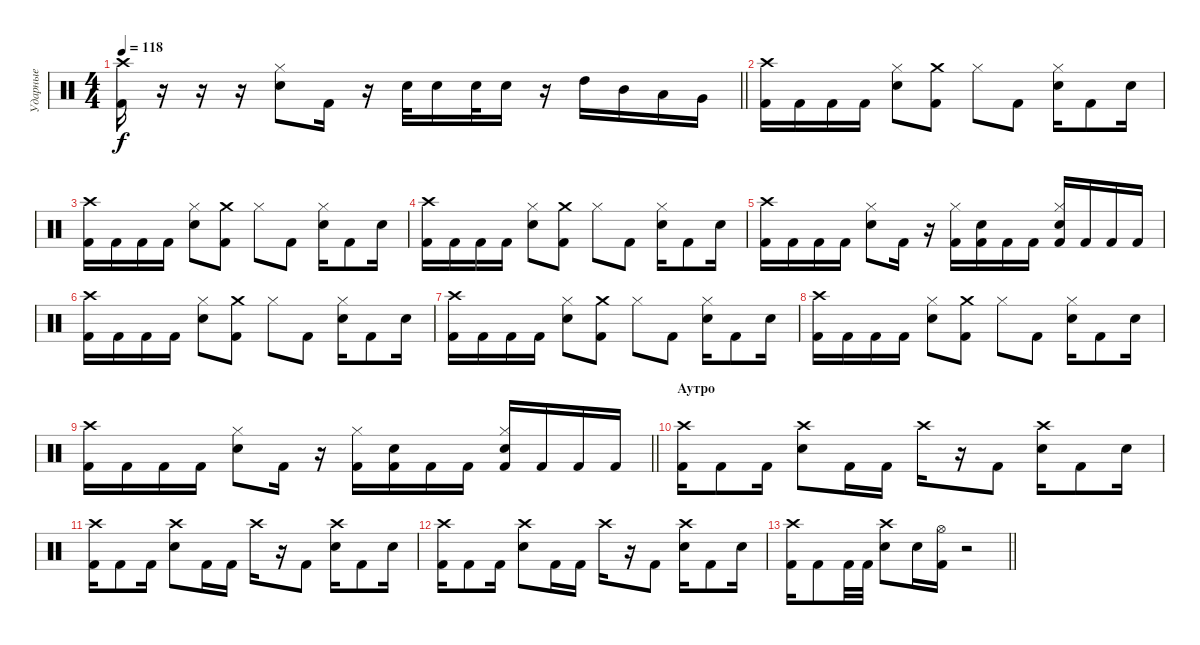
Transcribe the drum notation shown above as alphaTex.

\track ("Ударные" "Ударные") {instrument percussion}
\staff {score}
\articulation defaults
\ts (4 4)
\tempo 118
\clef neutral
\barLineRight lightlight
\ks c
("Crash high (hit)" "Kick (hit) 2").16{dy f} r.16 r.16 r.16 ("Hi-Hat (closed)" "Snare (hit) 2").8 "Kick (hit) 2".16 r.16 "Snare (hit) 2".32 "Snare (hit) 2".16 "Snare (hit) 2".32 "Snare (hit) 2".16 r.16 "High Tom (hit)".16 "Mid Tom (hit)".16 "Low Tom (hit)".16 "Very Low Tom (hit)".16 |
("Crash high (hit)" "Kick (hit) 2").16 "Kick (hit) 2".16 "Kick (hit) 2".16 "Kick (hit) 2".16 ("Hi-Hat (closed)" "Snare (hit) 2").8 ("Crash medium (hit)" "Kick (hit) 2").8 "Hi-Hat (closed)".8 "Kick (hit) 2".8 ("Hi-Hat (closed)" "Snare (hit) 2").16 "Kick (hit) 2".8 "Snare (hit) 2".16 |
("Crash high (hit)" "Kick (hit) 2").16 "Kick (hit) 2".16 "Kick (hit) 2".16 "Kick (hit) 2".16 ("Hi-Hat (closed)" "Snare (hit) 2").8 ("Crash medium (hit)" "Kick (hit) 2").8 "Hi-Hat (closed)".8 "Kick (hit) 2".8 ("Hi-Hat (closed)" "Snare (hit) 2").16 "Kick (hit) 2".8 "Snare (hit) 2".16 |
("Crash high (hit)" "Kick (hit) 2").16 "Kick (hit) 2".16 "Kick (hit) 2".16 "Kick (hit) 2".16 ("Hi-Hat (closed)" "Snare (hit) 2").8 ("Crash medium (hit)" "Kick (hit) 2").8 "Hi-Hat (closed)".8 "Kick (hit) 2".8 ("Hi-Hat (closed)" "Snare (hit) 2").16 "Kick (hit) 2".8 "Snare (hit) 2".16 |
("Crash high (hit)" "Kick (hit) 2").16 "Kick (hit) 2".16 "Kick (hit) 2".16 "Kick (hit) 2".16 ("Hi-Hat (closed)" "Snare (hit) 2").8 "Kick (hit) 2".16 r.16 ("Hi-Hat (closed)" "Kick (hit) 2").16 ("Snare (hit) 2" "Kick (hit) 2").16 "Kick (hit) 2".16 "Kick (hit) 2".16 ("Hi-Hat (closed)" "Snare (hit) 2" "Kick (hit) 2").16 "Kick (hit) 2".16 "Kick (hit) 2".16 "Kick (hit) 2".16 |
("Crash high (hit)" "Kick (hit) 2").16 "Kick (hit) 2".16 "Kick (hit) 2".16 "Kick (hit) 2".16 ("Hi-Hat (closed)" "Snare (hit) 2").8 ("Crash medium (hit)" "Kick (hit) 2").8 "Hi-Hat (closed)".8 "Kick (hit) 2".8 ("Hi-Hat (closed)" "Snare (hit) 2").16 "Kick (hit) 2".8 "Snare (hit) 2".16 |
("Crash high (hit)" "Kick (hit) 2").16 "Kick (hit) 2".16 "Kick (hit) 2".16 "Kick (hit) 2".16 ("Hi-Hat (closed)" "Snare (hit) 2").8 ("Crash medium (hit)" "Kick (hit) 2").8 "Hi-Hat (closed)".8 "Kick (hit) 2".8 ("Hi-Hat (closed)" "Snare (hit) 2").16 "Kick (hit) 2".8 "Snare (hit) 2".16 |
("Crash high (hit)" "Kick (hit) 2").16 "Kick (hit) 2".16 "Kick (hit) 2".16 "Kick (hit) 2".16 ("Hi-Hat (closed)" "Snare (hit) 2").8 ("Crash medium (hit)" "Kick (hit) 2").8 "Hi-Hat (closed)".8 "Kick (hit) 2".8 ("Hi-Hat (closed)" "Snare (hit) 2").16 "Kick (hit) 2".8 "Snare (hit) 2".16 |
\barLineRight lightlight
("Crash high (hit)" "Kick (hit) 2").16 "Kick (hit) 2".16 "Kick (hit) 2".16 "Kick (hit) 2".16 ("Hi-Hat (closed)" "Snare (hit) 2").8 "Kick (hit) 2".16 r.16 ("Hi-Hat (closed)" "Kick (hit) 2").16 ("Snare (hit) 2" "Kick (hit) 2").16 "Kick (hit) 2".16 "Kick (hit) 2".16 ("Hi-Hat (closed)" "Snare (hit) 2" "Kick (hit) 2").16 "Kick (hit) 2".16 "Kick (hit) 2".16 "Kick (hit) 2".16 |
\section ("" "Аутро")
("Crash high (hit)" "Kick (hit) 2").16 "Kick (hit) 2".8 "Kick (hit) 2".16 ("Crash high (hit)" "Snare (hit) 2").8 "Kick (hit) 2".16 "Kick (hit) 2".16 "Crash high (hit)".16 r.16 "Kick (hit) 2".8 ("Crash high (hit)" "Snare (hit) 2").16 "Kick (hit) 2".8 "Snare (hit) 2".16 |
("Crash high (hit)" "Kick (hit) 2").16 "Kick (hit) 2".8 "Kick (hit) 2".16 ("Crash high (hit)" "Snare (hit) 2").8 "Kick (hit) 2".16 "Kick (hit) 2".16 "Crash high (hit)".16 r.16 "Kick (hit) 2".8 ("Crash high (hit)" "Snare (hit) 2").16 "Kick (hit) 2".8 "Snare (hit) 2".16 |
("Crash high (hit)" "Kick (hit) 2").16 "Kick (hit) 2".8 "Kick (hit) 2".16 ("Crash high (hit)" "Snare (hit) 2").8 "Kick (hit) 2".16 "Kick (hit) 2".16 "Crash high (hit)".16 r.16 "Kick (hit) 2".8 ("Crash high (hit)" "Snare (hit) 2").16 "Kick (hit) 2".8 "Snare (hit) 2".16 |
\barLineRight lightlight
("Crash high (hit)" "Kick (hit) 2").16 "Kick (hit) 2".8 "Kick (hit) 2".32 "Kick (hit) 2".32 ("Crash high (hit)" "Snare (hit) 2").8 "Snare (hit) 2".16 ("Hi-Hat (open)" "Kick (hit) 2").16 r.2
